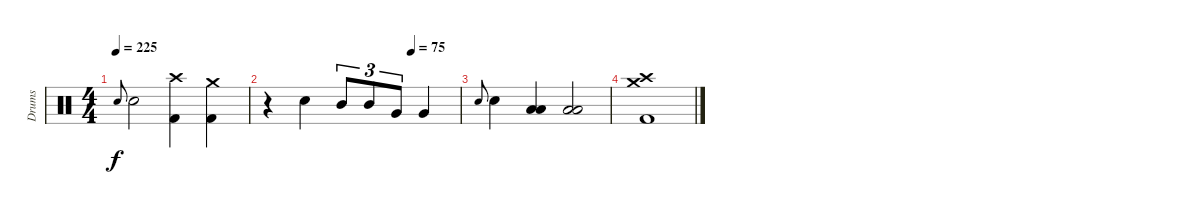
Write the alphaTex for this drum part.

\track ("Drums" "Drums") {instrument percussion}
\staff {score}
\articulation defaults
\ts (4 4)
\tempo 225
\clef neutral
\ks c "Electric Snare (hit)".8{gr onbeat dy f} "Electric Snare (hit)".2
("Kick (hit) 2" "Crash high (hit)").4 ("Kick (hit) 2" "Crash medium (hit)").4 |
\tempo (75 0.75)
r.4 "Electric Snare (hit)".4 "Mid Tom (hit)".8{tu (3 2)} "Mid Tom (hit)".8{tu (3 2)} "Very Low Tom (hit)".8{tu (3 2)} "Very Low Tom (hit)".4 |
"Electric Snare (hit)".8{gr onbeat} "Electric Snare (hit)".4 ("Low Tom (hit)" "Low Floor Tom (hit)").4 ("Low Floor Tom (hit)" "Low Tom (hit)").2 |
("Kick (hit) 2" "Crash medium (hit)" "Crash high (hit)").1
